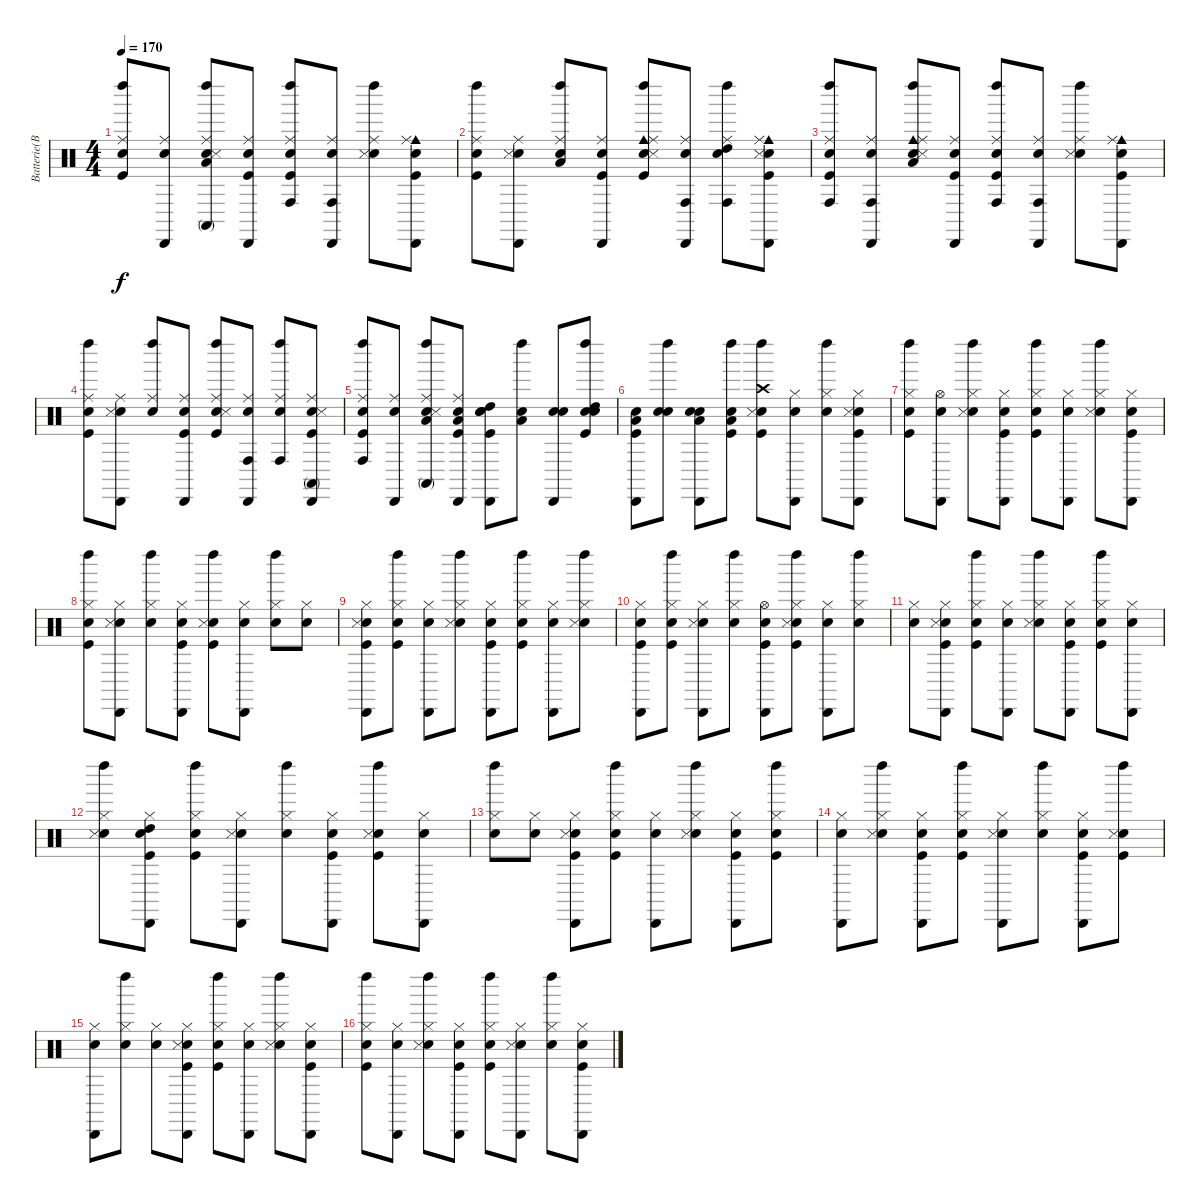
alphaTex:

\track ("Batterie(BB)" "Batterie(B") {instrument percussion}
\staff {score}
\articulation defaults
\ts (4 4)
\tempo 170
\clef neutral
\ks c
("Snare (hit)" "Kick (hit)" "Ride (middle)" "Left Maraca (hit)").8{dy f} ("Snare (hit)" "Ride (middle)" "Cabasa (hit)").8 ("Snare (hit)" "Snare (side stick) 3" "Ride (middle)" "Low Tom (hit)" "Conga high (mute)" "Left Maraca (hit)").8 ("Snare (hit)" "Kick (hit)" "Ride (middle)" "Cabasa (hit)").8 ("Snare (hit)" "Kick (hit)" "Ride (middle)" "Conga high (hit)" "Left Maraca (hit)").8 ("Snare (hit)" "Ride (middle)" "Conga high (hit)" "Cabasa (hit)").8 ("Snare (hit)" "Snare (side stick) 3" "Ride (middle)" "Left Maraca (hit)").8 ("Snare (hit)" "Kick (hit)" "Cowbell medium (hit)" "Ride (middle)" "Cabasa (hit)").8 |
("Snare (hit)" "Kick (hit)" "Ride (middle)" "Left Maraca (hit)").8 ("Snare (hit)" "Snare (side stick) 3" "Ride (middle)" "Cabasa (hit)").8 ("Snare (hit)" "Ride (middle)" "Low Tom (hit)" "Left Maraca (hit)").8 ("Snare (hit)" "Kick (hit)" "Ride (middle)" "Cabasa (hit)").8 ("Snare (hit)" "Kick (hit)" "Snare (side stick) 3" "Cowbell medium (hit)" "Ride (middle)" "Left Maraca (hit)").8 ("Snare (hit)" "Ride (middle)" "Conga high (hit)" "Cabasa (hit)").8 ("Snare (hit)" "Ride (middle)" "High Tom (hit)" "Conga high (hit)" "Left Maraca (hit)").8 ("Snare (hit)" "Kick (hit)" "Snare (side stick) 3" "Cowbell medium (hit)" "Ride (middle)" "Cabasa (hit)").8 |
("Snare (hit)" "Kick (hit)" "Ride (middle)" "Conga high (hit)" "Left Maraca (hit)").8 ("Snare (hit)" "Ride (middle)" "Conga high (hit)" "Cabasa (hit)").8 ("Snare (hit)" "Snare (side stick) 3" "Cowbell medium (hit)" "Ride (middle)" "Low Tom (hit)" "Left Maraca (hit)").8 ("Snare (hit)" "Kick (hit)" "Ride (middle)" "Cabasa (hit)").8 ("Snare (hit)" "Kick (hit)" "Ride (middle)" "Conga high (hit)" "Left Maraca (hit)").8 ("Snare (hit)" "Ride (middle)" "Conga high (hit)" "Cabasa (hit)").8 ("Snare (hit)" "Snare (side stick) 3" "Ride (middle)" "Left Maraca (hit)").8 ("Snare (hit)" "Kick (hit)" "Cowbell medium (hit)" "Ride (middle)" "Cabasa (hit)").8 |
("Snare (hit)" "Kick (hit)" "Ride (middle)" "Left Maraca (hit)").8 ("Snare (hit)" "Snare (side stick) 3" "Ride (middle)" "Cabasa (hit)").8 ("Snare (hit)" "Ride (middle)" "Left Maraca (hit)").8 ("Snare (hit)" "Kick (hit)" "Ride (middle)" "Cabasa (hit)").8 ("Snare (hit)" "Kick (hit)" "Snare (side stick) 3" "Ride (middle)" "Left Maraca (hit)").8 ("Snare (hit)" "Ride (middle)" "Conga high (hit)" "Cabasa (hit)").8 ("Snare (hit)" "Ride (middle)" "Conga high (hit)" "Left Maraca (hit)").8 ("Snare (hit)" "Kick (hit)" "Snare (side stick) 3" "Ride (middle)" "Conga high (mute)" "Cabasa (hit)").8 |
("Snare (hit)" "Kick (hit)" "Ride (middle)" "Conga high (hit)" "Left Maraca (hit)").8 ("Snare (hit)" "Ride (middle)" "Cabasa (hit)").8 ("Snare (hit)" "Snare (side stick) 3" "Ride (middle)" "Low Tom (hit)" "Conga high (mute)" "Left Maraca (hit)").8 ("Snare (hit)" "Kick (hit)" "Ride (middle)" "Low Tom (hit)" "Cabasa (hit)").8 ("Snare (hit)" "Kick (hit)" "Snare (hit) 2" "High Tom (hit)" "Cabasa (hit)").8 ("Snare (hit)" "Low Tom (hit)" "Left Maraca (hit)").8 ("Snare (hit)" "Snare (hit) 2" "Cabasa (hit)").8 ("Snare (hit)" "Kick (hit)" "Snare (hit) 2" "High Tom (hit)" "Left Maraca (hit)").8 |
("Snare (hit)" "Kick (hit)" "Low Tom (hit)" "Cabasa (hit)").8 ("Snare (hit)" "Snare (hit) 2" "Left Maraca (hit)").8 ("Snare (hit)" "Snare (hit) 2" "Low Tom (hit)" "Cabasa (hit)").8 ("Snare (hit)" "Kick (hit)" "Low Floor Tom (hit)" "Left Maraca (hit)").8 ("Snare (hit)" "Kick (hit)" "Snare (side stick) 3" "Crash high (hit)" "Left Maraca (hit)").8 ("Snare (hit)" "Hi-Hat (closed)" "Cabasa (hit)").8 ("Snare (hit)" "Hi-Hat (closed)" "Left Maraca (hit)").8 ("Snare (hit)" "Kick (hit)" "Hi-Hat (closed)" "Snare (side stick) 3" "Cabasa (hit)").8 |
("Snare (hit)" "Kick (hit)" "Hi-Hat (closed)" "Left Maraca (hit)").8 ("Snare (hit)" "Hi-Hat (open)" "Cabasa (hit)").8 ("Snare (hit)" "Hi-Hat (closed)" "Snare (side stick) 3" "Left Maraca (hit)").8 ("Snare (hit)" "Kick (hit)" "Hi-Hat (closed)" "Cabasa (hit)").8 ("Snare (hit)" "Kick (hit)" "Hi-Hat (closed)" "Left Maraca (hit)").8 ("Snare (hit)" "Hi-Hat (closed)" "Cabasa (hit)").8 ("Snare (hit)" "Hi-Hat (closed)" "Snare (side stick) 3" "Left Maraca (hit)").8 ("Snare (hit)" "Kick (hit)" "Hi-Hat (closed)" "Cabasa (hit)").8 |
("Snare (hit)" "Kick (hit)" "Hi-Hat (closed)" "Left Maraca (hit)").8 ("Snare (hit)" "Hi-Hat (closed)" "Snare (side stick) 3" "Cabasa (hit)").8 ("Snare (hit)" "Hi-Hat (closed)" "Left Maraca (hit)").8 ("Snare (hit)" "Kick (hit)" "Hi-Hat (closed)" "Cabasa (hit)").8 ("Snare (hit)" "Kick (hit)" "Snare (side stick) 3" "Left Maraca (hit)").8 ("Snare (hit)" "Hi-Hat (closed)" "Cabasa (hit)").8 ("Snare (hit)" "Hi-Hat (closed)" "Left Maraca (hit)").8 ("Snare (hit)" "Hi-Hat (closed)").8 |
("Snare (hit)" "Kick (hit)" "Hi-Hat (closed)" "Snare (side stick) 3" "Cabasa (hit)").8 ("Snare (hit)" "Kick (hit)" "Hi-Hat (closed)" "Left Maraca (hit)").8 ("Snare (hit)" "Hi-Hat (closed)" "Cabasa (hit)").8 ("Snare (hit)" "Hi-Hat (closed)" "Snare (side stick) 3" "Left Maraca (hit)").8 ("Snare (hit)" "Kick (hit)" "Hi-Hat (closed)" "Cabasa (hit)").8 ("Snare (hit)" "Kick (hit)" "Hi-Hat (closed)" "Left Maraca (hit)").8 ("Snare (hit)" "Hi-Hat (closed)" "Cabasa (hit)").8 ("Snare (hit)" "Hi-Hat (closed)" "Snare (side stick) 3" "Left Maraca (hit)").8 |
("Snare (hit)" "Kick (hit)" "Hi-Hat (closed)" "Cabasa (hit)").8 ("Snare (hit)" "Kick (hit)" "Hi-Hat (closed)" "Left Maraca (hit)").8 ("Snare (hit)" "Hi-Hat (closed)" "Snare (side stick) 3" "Cabasa (hit)").8 ("Snare (hit)" "Hi-Hat (closed)" "Left Maraca (hit)").8 ("Snare (hit)" "Kick (hit)" "Hi-Hat (open)" "Cabasa (hit)").8 ("Snare (hit)" "Kick (hit)" "Hi-Hat (closed)" "Snare (side stick) 3" "Left Maraca (hit)").8 ("Snare (hit)" "Hi-Hat (closed)" "Cabasa (hit)").8 ("Snare (hit)" "Hi-Hat (closed)" "Left Maraca (hit)").8 |
("Snare (hit)" "Hi-Hat (closed)").8 ("Snare (hit)" "Kick (hit)" "Hi-Hat (closed)" "Snare (side stick) 3" "Cabasa (hit)").8 ("Snare (hit)" "Kick (hit)" "Hi-Hat (closed)" "Left Maraca (hit)").8 ("Snare (hit)" "Hi-Hat (closed)" "Cabasa (hit)").8 ("Snare (hit)" "Hi-Hat (closed)" "Snare (side stick) 3" "Left Maraca (hit)").8 ("Snare (hit)" "Kick (hit)" "Hi-Hat (closed)" "Cabasa (hit)").8 ("Snare (hit)" "Kick (hit)" "Hi-Hat (closed)" "Left Maraca (hit)").8 ("Snare (hit)" "Hi-Hat (closed)" "Cabasa (hit)").8 |
("Snare (hit)" "Hi-Hat (closed)" "Snare (side stick) 3" "Left Maraca (hit)").8 ("Snare (hit)" "Kick (hit)" "Hi-Hat (closed)" "High Tom (hit)" "Cabasa (hit)").8 ("Snare (hit)" "Kick (hit)" "Hi-Hat (closed)" "Left Maraca (hit)").8 ("Snare (hit)" "Hi-Hat (closed)" "Snare (side stick) 3" "Cabasa (hit)").8 ("Snare (hit)" "Hi-Hat (closed)" "Left Maraca (hit)").8 ("Snare (hit)" "Kick (hit)" "Hi-Hat (closed)" "Cabasa (hit)").8 ("Snare (hit)" "Kick (hit)" "Snare (side stick) 3" "Left Maraca (hit)").8 ("Snare (hit)" "Hi-Hat (closed)" "Cabasa (hit)").8 |
("Snare (hit)" "Hi-Hat (closed)" "Left Maraca (hit)").8 ("Snare (hit)" "Hi-Hat (closed)").8 ("Snare (hit)" "Kick (hit)" "Hi-Hat (closed)" "Snare (side stick) 3" "Cabasa (hit)").8 ("Snare (hit)" "Kick (hit)" "Hi-Hat (closed)" "Left Maraca (hit)").8 ("Snare (hit)" "Hi-Hat (closed)" "Cabasa (hit)").8 ("Snare (hit)" "Hi-Hat (closed)" "Snare (side stick) 3" "Left Maraca (hit)").8 ("Snare (hit)" "Kick (hit)" "Hi-Hat (closed)" "Cabasa (hit)").8 ("Snare (hit)" "Kick (hit)" "Hi-Hat (closed)" "Left Maraca (hit)").8 |
("Snare (hit)" "Hi-Hat (closed)" "Cabasa (hit)").8 ("Snare (hit)" "Hi-Hat (closed)" "Snare (side stick) 3" "Left Maraca (hit)").8 ("Snare (hit)" "Kick (hit)" "Hi-Hat (closed)" "Cabasa (hit)").8 ("Snare (hit)" "Kick (hit)" "Hi-Hat (closed)" "Left Maraca (hit)").8 ("Snare (hit)" "Hi-Hat (closed)" "Snare (side stick) 3" "Cabasa (hit)").8 ("Snare (hit)" "Hi-Hat (closed)" "Left Maraca (hit)").8 ("Snare (hit)" "Kick (hit)" "Hi-Hat (closed)" "Cabasa (hit)").8 ("Snare (hit)" "Kick (hit)" "Snare (side stick) 3" "Left Maraca (hit)").8 |
("Snare (hit)" "Hi-Hat (closed)" "Cabasa (hit)").8 ("Snare (hit)" "Hi-Hat (closed)" "Left Maraca (hit)").8 ("Snare (hit)" "Hi-Hat (closed)").8 ("Snare (hit)" "Kick (hit)" "Hi-Hat (closed)" "Snare (side stick) 3" "Cabasa (hit)").8 ("Snare (hit)" "Kick (hit)" "Hi-Hat (closed)" "Left Maraca (hit)").8 ("Snare (hit)" "Hi-Hat (closed)" "Cabasa (hit)").8 ("Snare (hit)" "Hi-Hat (closed)" "Snare (side stick) 3" "Left Maraca (hit)").8 ("Snare (hit)" "Kick (hit)" "Hi-Hat (closed)" "Cabasa (hit)").8 |
("Snare (hit)" "Kick (hit)" "Hi-Hat (closed)" "Left Maraca (hit)").8 ("Snare (hit)" "Hi-Hat (closed)" "Cabasa (hit)").8 ("Snare (hit)" "Hi-Hat (closed)" "Snare (side stick) 3" "Left Maraca (hit)").8 ("Snare (hit)" "Kick (hit)" "Hi-Hat (closed)" "Cabasa (hit)").8 ("Snare (hit)" "Kick (hit)" "Hi-Hat (closed)" "Left Maraca (hit)").8 ("Snare (hit)" "Hi-Hat (closed)" "Snare (side stick) 3" "Cabasa (hit)").8 ("Snare (hit)" "Hi-Hat (closed)" "Left Maraca (hit)").8 ("Snare (hit)" "Kick (hit)" "Hi-Hat (closed)" "Cabasa (hit)").8
